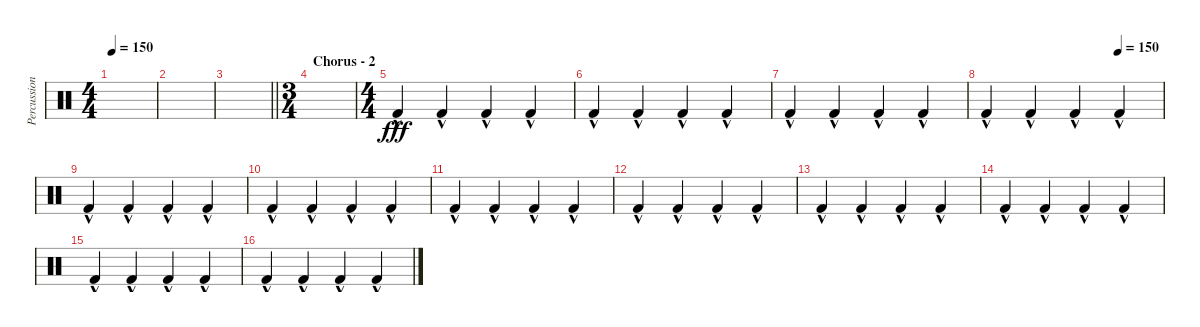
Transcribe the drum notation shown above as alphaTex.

\track ("Percussion" "Percussion") {instrument percussion}
\staff {score}
\articulation defaults
\ts (4 4)
\tempo 150
\clef neutral
\ks c
|
|
\barLineRight lightlight
|
\ts (3 4)
\section ("" "Chorus - 2")
|
\ts (4 4)
"Kick (hit) 2"{hac}.4{dy fff} "Kick (hit) 2"{hac}.4 "Kick (hit) 2"{hac}.4 "Kick (hit) 2"{hac}.4 |
"Kick (hit) 2"{hac}.4 "Kick (hit) 2"{hac}.4 "Kick (hit) 2"{hac}.4 "Kick (hit) 2"{hac}.4 |
"Kick (hit) 2"{hac}.4 "Kick (hit) 2"{hac}.4 "Kick (hit) 2"{hac}.4 "Kick (hit) 2"{hac}.4 |
\tempo (150 0.75)
"Kick (hit) 2"{hac}.4 "Kick (hit) 2"{hac}.4 "Kick (hit) 2"{hac}.4 "Kick (hit) 2"{hac}.4 |
"Kick (hit) 2"{hac}.4 "Kick (hit) 2"{hac}.4 "Kick (hit) 2"{hac}.4 "Kick (hit) 2"{hac}.4 |
"Kick (hit) 2"{hac}.4 "Kick (hit) 2"{hac}.4 "Kick (hit) 2"{hac}.4 "Kick (hit) 2"{hac}.4 |
"Kick (hit) 2"{hac}.4 "Kick (hit) 2"{hac}.4 "Kick (hit) 2"{hac}.4 "Kick (hit) 2"{hac}.4 |
"Kick (hit) 2"{hac}.4 "Kick (hit) 2"{hac}.4 "Kick (hit) 2"{hac}.4 "Kick (hit) 2"{hac}.4 |
"Kick (hit) 2"{hac}.4 "Kick (hit) 2"{hac}.4 "Kick (hit) 2"{hac}.4 "Kick (hit) 2"{hac}.4 |
"Kick (hit) 2"{hac}.4 "Kick (hit) 2"{hac}.4 "Kick (hit) 2"{hac}.4 "Kick (hit) 2"{hac}.4 |
"Kick (hit) 2"{hac}.4 "Kick (hit) 2"{hac}.4 "Kick (hit) 2"{hac}.4 "Kick (hit) 2"{hac}.4 |
"Kick (hit) 2"{hac}.4 "Kick (hit) 2"{hac}.4 "Kick (hit) 2"{hac}.4 "Kick (hit) 2"{hac}.4
